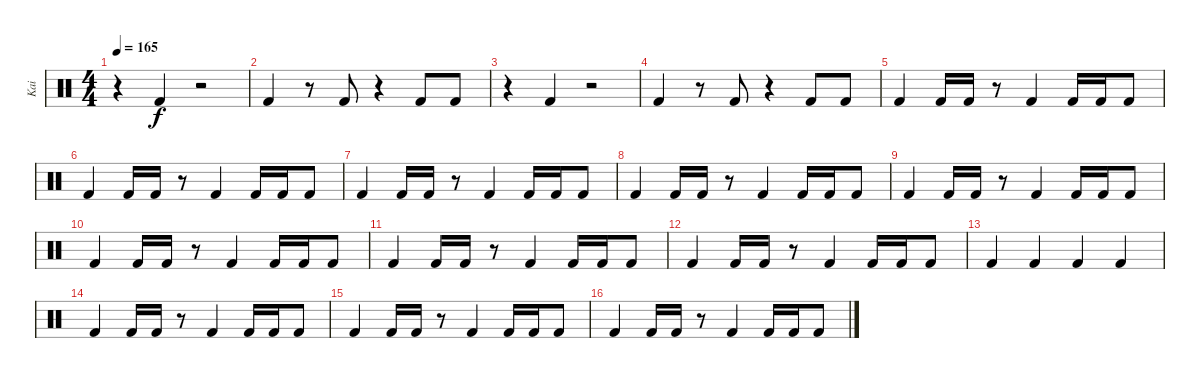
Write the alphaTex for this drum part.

\track ("Kai" "Kai") {instrument percussion}
\staff {score}
\articulation defaults
\ts (4 4)
\tempo 165
\clef neutral
\ks c
r.4{dy f} "Kick (hit) 2".4 r.2 |
"Kick (hit) 2".4 r.8 "Kick (hit) 2".8 r.4 "Kick (hit) 2".8 "Kick (hit) 2".8 |
r.4 "Kick (hit) 2".4 r.2 |
"Kick (hit) 2".4 r.8 "Kick (hit) 2".8 r.4 "Kick (hit) 2".8 "Kick (hit) 2".8 |
"Kick (hit) 2".4 "Kick (hit) 2".16 "Kick (hit) 2".16 r.8 "Kick (hit) 2".4 "Kick (hit) 2".16 "Kick (hit) 2".16 "Kick (hit) 2".8 |
"Kick (hit) 2".4 "Kick (hit) 2".16 "Kick (hit) 2".16 r.8 "Kick (hit) 2".4 "Kick (hit) 2".16 "Kick (hit) 2".16 "Kick (hit) 2".8 |
"Kick (hit) 2".4 "Kick (hit) 2".16 "Kick (hit) 2".16 r.8 "Kick (hit) 2".4 "Kick (hit) 2".16 "Kick (hit) 2".16 "Kick (hit) 2".8 |
"Kick (hit) 2".4 "Kick (hit) 2".16 "Kick (hit) 2".16 r.8 "Kick (hit) 2".4 "Kick (hit) 2".16 "Kick (hit) 2".16 "Kick (hit) 2".8 |
"Kick (hit) 2".4 "Kick (hit) 2".16 "Kick (hit) 2".16 r.8 "Kick (hit) 2".4 "Kick (hit) 2".16 "Kick (hit) 2".16 "Kick (hit) 2".8 |
"Kick (hit) 2".4 "Kick (hit) 2".16 "Kick (hit) 2".16 r.8 "Kick (hit) 2".4 "Kick (hit) 2".16 "Kick (hit) 2".16 "Kick (hit) 2".8 |
"Kick (hit) 2".4 "Kick (hit) 2".16 "Kick (hit) 2".16 r.8 "Kick (hit) 2".4 "Kick (hit) 2".16 "Kick (hit) 2".16 "Kick (hit) 2".8 |
"Kick (hit) 2".4 "Kick (hit) 2".16 "Kick (hit) 2".16 r.8 "Kick (hit) 2".4 "Kick (hit) 2".16 "Kick (hit) 2".16 "Kick (hit) 2".8 |
"Kick (hit) 2".4 "Kick (hit) 2".4 "Kick (hit) 2".4 "Kick (hit) 2".4 |
"Kick (hit) 2".4 "Kick (hit) 2".16 "Kick (hit) 2".16 r.8 "Kick (hit) 2".4 "Kick (hit) 2".16 "Kick (hit) 2".16 "Kick (hit) 2".8 |
"Kick (hit) 2".4 "Kick (hit) 2".16 "Kick (hit) 2".16 r.8 "Kick (hit) 2".4 "Kick (hit) 2".16 "Kick (hit) 2".16 "Kick (hit) 2".8 |
"Kick (hit) 2".4 "Kick (hit) 2".16 "Kick (hit) 2".16 r.8 "Kick (hit) 2".4 "Kick (hit) 2".16 "Kick (hit) 2".16 "Kick (hit) 2".8
